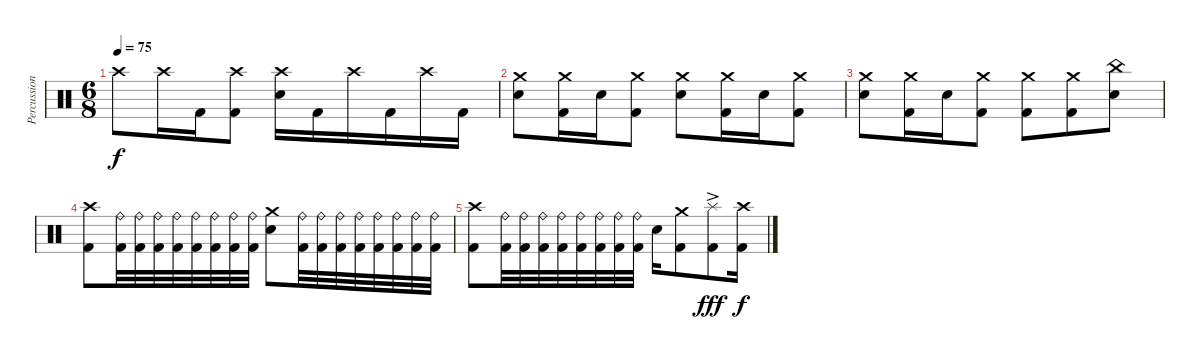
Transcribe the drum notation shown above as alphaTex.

\track ("Percussions" "Percussion") {instrument percussion}
\staff {score}
\articulation defaults
\ts (6 8)
\tempo 75
\clef neutral
\ks c "Crash high (hit)".8{dy f} "Crash high (hit)".16 "Kick (hit) 2".16
("Crash high (hit)" "Kick (hit) 2").8 ("Crash high (hit)" "Electric Snare (hit)").16 "Kick (hit) 2".16 "Crash high (hit)".16 "Kick (hit) 2".16 "Crash high (hit)".16 "Kick (hit) 2".16 |
("Crash medium (hit)" "Electric Snare (hit)").8 ("Crash medium (hit)" "Kick (hit) 2").16 "Electric Snare (hit)".16 ("Crash medium (hit)" "Kick (hit) 2").8 ("Crash medium (hit)" "Electric Snare (hit)").8 ("Crash medium (hit)" "Kick (hit) 2").16 "Electric Snare (hit)".16 ("Crash medium (hit)" "Kick (hit) 2").8 |
("Crash medium (hit)" "Electric Snare (hit)").8 ("Crash medium (hit)" "Kick (hit) 2").16 "Electric Snare (hit)".16 ("Crash medium (hit)" "Kick (hit) 2").8 ("Crash medium (hit)" "Kick (hit) 2").8 ("Crash medium (hit)" "Kick (hit) 2").8 ("China (hit)" "Electric Snare (hit)").8 |
("Crash high (hit)" "Kick (hit) 2").8 ("Ride (bell)" "Kick (hit) 2").32 ("Ride (bell)" "Kick (hit) 2").32 ("Ride (bell)" "Kick (hit) 2").32 ("Ride (bell)" "Kick (hit) 2").32 ("Ride (bell)" "Kick (hit) 2").32 ("Ride (bell)" "Kick (hit) 2").32 ("Ride (bell)" "Kick (hit) 2").32 ("Ride (bell)" "Kick (hit) 2").32 ("Crash medium (hit)" "Electric Snare (hit)").8 ("Ride (bell)" "Kick (hit) 2").32 ("Ride (bell)" "Kick (hit) 2").32 ("Ride (bell)" "Kick (hit) 2").32 ("Ride (bell)" "Kick (hit) 2").32 ("Ride (bell)" "Kick (hit) 2").32 ("Ride (bell)" "Kick (hit) 2").32 ("Ride (bell)" "Kick (hit) 2").32 ("Ride (bell)" "Kick (hit) 2").32 |
("Crash high (hit)" "Kick (hit) 2").8 ("Ride (bell)" "Kick (hit) 2").32 ("Ride (bell)" "Kick (hit) 2").32 ("Ride (bell)" "Kick (hit) 2").32 ("Ride (bell)" "Kick (hit) 2").32 ("Ride (bell)" "Kick (hit) 2").32 ("Ride (bell)" "Kick (hit) 2").32 ("Ride (bell)" "Kick (hit) 2").32 ("Ride (bell)" "Kick (hit) 2").32 "Electric Snare (hit)".16 ("Crash medium (hit)" "Kick (hit) 2").8 ("Splash (hit)"{ac} "Kick (hit) 2").8{dy fff} ("Crash high (hit)" "Kick (hit) 2").16{dy f}
